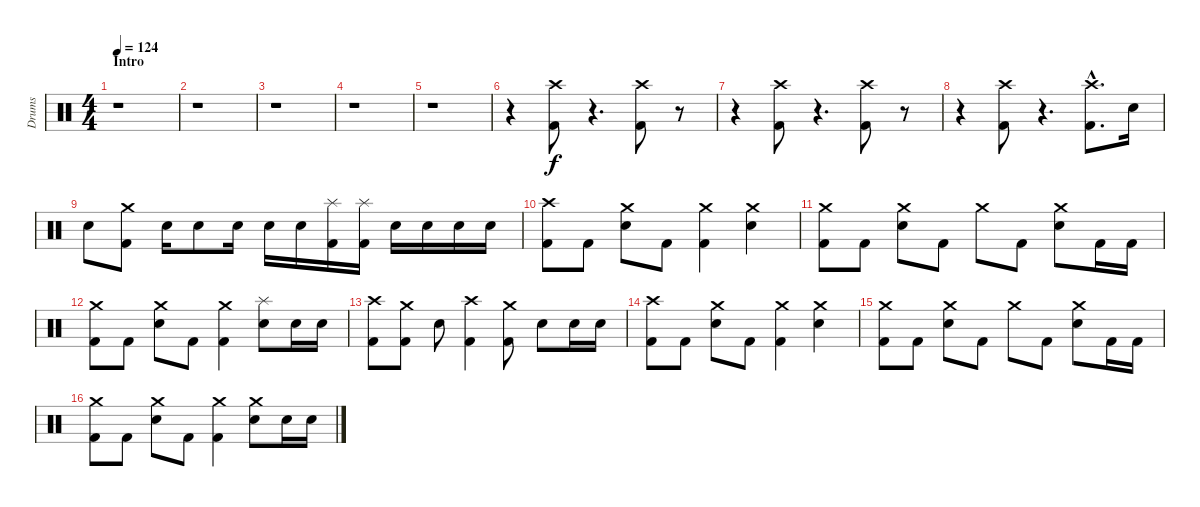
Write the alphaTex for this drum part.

\track ("Drums" "Drums") {instrument percussion}
\staff {score}
\articulation defaults
\ts (4 4)
\section ("" "Intro")
\tempo 124
\clef neutral
\ks c
r.1{dy f} |
r.1 |
r.1 |
r.1 |
r.1 |
r.4 ("Crash high (hit)" "Kick (hit) 2").8 r.4{d volume 0} ("Crash high (hit)" "Kick (hit) 2").8{volume 14} r.8{volume 0} |
r.4 ("Crash high (hit)" "Kick (hit) 2").8{volume 14} r.4{d volume 0} ("Crash high (hit)" "Kick (hit) 2").8{volume 14} r.8{volume 0} |
r.4 ("Crash high (hit)" "Kick (hit) 2").8{volume 14} r.4{d volume 0} ("Crash high (hit)"{hac} "Kick (hit) 2"{hac}).8{d volume 14} "Snare (hit) 2".16 |
"Snare (hit) 2".8 ("Crash medium (hit)" "Kick (hit) 2").8 "Snare (hit) 2".16 "Snare (hit) 2".8 "Snare (hit) 2".16 "Snare (hit) 2".16 "Snare (hit) 2".16 ("Splash (hit)" "Kick (hit) 2").16 ("Splash (hit)" "Kick (hit) 2").16 "Snare (hit) 2".16 "Snare (hit) 2".16 "Snare (hit) 2".16 "Snare (hit) 2".16 |
("Crash high (hit)" "Kick (hit) 2").8 "Kick (hit) 2".8 ("Crash medium (hit)" "Snare (hit) 2").8 "Kick (hit) 2".8 ("Crash medium (hit)" "Kick (hit) 2").4 ("Crash medium (hit)" "Snare (hit) 2").4 |
("Crash medium (hit)" "Kick (hit) 2").8 "Kick (hit) 2".8 ("Crash medium (hit)" "Snare (hit) 2").8 "Kick (hit) 2".8 "Crash medium (hit)".8 "Kick (hit) 2".8 ("Crash medium (hit)" "Snare (hit) 2").8 "Kick (hit) 2".16 "Kick (hit) 2".16 |
("Crash medium (hit)" "Kick (hit) 2").8 "Kick (hit) 2".8 ("Crash medium (hit)" "Snare (hit) 2").8 "Kick (hit) 2".8 ("Crash medium (hit)" "Kick (hit) 2").4 ("Splash (hit)" "Snare (hit) 2").8 "Snare (hit) 2".16 "Snare (hit) 2".16 |
("Crash high (hit)" "Kick (hit) 2").8 ("Crash medium (hit)" "Kick (hit) 2").8 "Snare (hit) 2".8 ("Crash high (hit)" "Kick (hit) 2").4 ("Crash medium (hit)" "Kick (hit) 2").8 "Snare (hit) 2".8 "Snare (hit) 2".16 "Snare (hit) 2".16 |
("Crash high (hit)" "Kick (hit) 2").8 "Kick (hit) 2".8 ("Crash medium (hit)" "Snare (hit) 2").8 "Kick (hit) 2".8 ("Crash medium (hit)" "Kick (hit) 2").4 ("Crash medium (hit)" "Snare (hit) 2").4 |
("Crash medium (hit)" "Kick (hit) 2").8 "Kick (hit) 2".8 ("Crash medium (hit)" "Snare (hit) 2").8 "Kick (hit) 2".8 "Crash medium (hit)".8 "Kick (hit) 2".8 ("Crash medium (hit)" "Snare (hit) 2").8 "Kick (hit) 2".16 "Kick (hit) 2".16 |
("Crash medium (hit)" "Kick (hit) 2").8 "Kick (hit) 2".8 ("Crash medium (hit)" "Snare (hit) 2").8 "Kick (hit) 2".8 ("Crash medium (hit)" "Kick (hit) 2").4 ("Crash medium (hit)" "Snare (hit) 2").8 "Snare (hit) 2".16 "Snare (hit) 2".16
